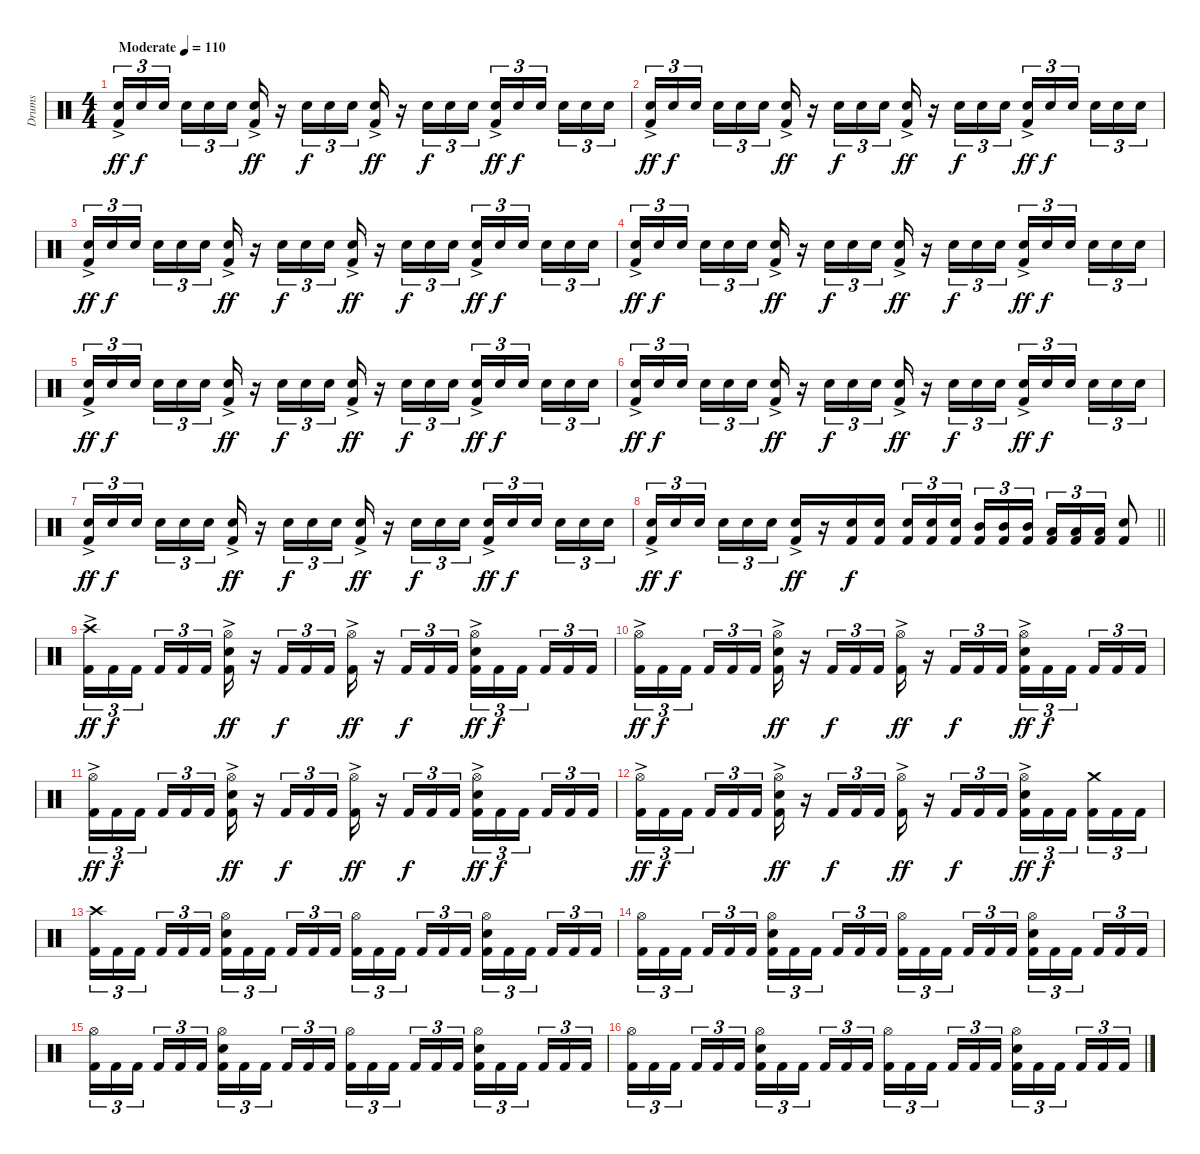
\track ("Drums" "Drums") {instrument percussion}
\staff {score}
\articulation defaults
\ts (4 4)
\tempo (110 "Moderate")
\clef neutral
\ks c
("Snare (hit) 2" "Kick (hit) 2"{ac}).16{tu (3 2) dy ff} "Snare (hit) 2".16{tu (3 2) dy f} "Snare (hit) 2".16{tu (3 2) beam splitsecondary} "Snare (hit) 2".16{tu (3 2)} "Snare (hit) 2".16{tu (3 2)} "Snare (hit) 2".16{tu (3 2)} ("Snare (hit) 2" "Kick (hit) 2"{ac}).16{dy ff} r.16 "Snare (hit) 2".16{tu (3 2) dy f} "Snare (hit) 2".16{tu (3 2)} "Snare (hit) 2".16{tu (3 2)} ("Snare (hit) 2" "Kick (hit) 2"{ac}).16{dy ff} r.16 "Snare (hit) 2".16{tu (3 2) dy f} "Snare (hit) 2".16{tu (3 2)} "Snare (hit) 2".16{tu (3 2)} ("Snare (hit) 2" "Kick (hit) 2"{ac}).16{tu (3 2) dy ff} "Snare (hit) 2".16{tu (3 2) dy f} "Snare (hit) 2".16{tu (3 2) beam splitsecondary} "Snare (hit) 2".16{tu (3 2)} "Snare (hit) 2".16{tu (3 2)} "Snare (hit) 2".16{tu (3 2)} |
("Snare (hit) 2" "Kick (hit) 2"{ac}).16{tu (3 2) dy ff} "Snare (hit) 2".16{tu (3 2) dy f} "Snare (hit) 2".16{tu (3 2) beam splitsecondary} "Snare (hit) 2".16{tu (3 2)} "Snare (hit) 2".16{tu (3 2)} "Snare (hit) 2".16{tu (3 2)} ("Snare (hit) 2" "Kick (hit) 2"{ac}).16{dy ff} r.16 "Snare (hit) 2".16{tu (3 2) dy f} "Snare (hit) 2".16{tu (3 2)} "Snare (hit) 2".16{tu (3 2)} ("Snare (hit) 2" "Kick (hit) 2"{ac}).16{dy ff} r.16 "Snare (hit) 2".16{tu (3 2) dy f} "Snare (hit) 2".16{tu (3 2)} "Snare (hit) 2".16{tu (3 2)} ("Snare (hit) 2" "Kick (hit) 2"{ac}).16{tu (3 2) dy ff} "Snare (hit) 2".16{tu (3 2) dy f} "Snare (hit) 2".16{tu (3 2) beam splitsecondary} "Snare (hit) 2".16{tu (3 2)} "Snare (hit) 2".16{tu (3 2)} "Snare (hit) 2".16{tu (3 2)} |
("Snare (hit) 2" "Kick (hit) 2"{ac}).16{tu (3 2) dy ff} "Snare (hit) 2".16{tu (3 2) dy f} "Snare (hit) 2".16{tu (3 2) beam splitsecondary} "Snare (hit) 2".16{tu (3 2)} "Snare (hit) 2".16{tu (3 2)} "Snare (hit) 2".16{tu (3 2)} ("Snare (hit) 2" "Kick (hit) 2"{ac}).16{dy ff} r.16 "Snare (hit) 2".16{tu (3 2) dy f} "Snare (hit) 2".16{tu (3 2)} "Snare (hit) 2".16{tu (3 2)} ("Snare (hit) 2" "Kick (hit) 2"{ac}).16{dy ff} r.16 "Snare (hit) 2".16{tu (3 2) dy f} "Snare (hit) 2".16{tu (3 2)} "Snare (hit) 2".16{tu (3 2)} ("Snare (hit) 2" "Kick (hit) 2"{ac}).16{tu (3 2) dy ff} "Snare (hit) 2".16{tu (3 2) dy f} "Snare (hit) 2".16{tu (3 2) beam splitsecondary} "Snare (hit) 2".16{tu (3 2)} "Snare (hit) 2".16{tu (3 2)} "Snare (hit) 2".16{tu (3 2)} |
("Snare (hit) 2" "Kick (hit) 2"{ac}).16{tu (3 2) dy ff} "Snare (hit) 2".16{tu (3 2) dy f} "Snare (hit) 2".16{tu (3 2) beam splitsecondary} "Snare (hit) 2".16{tu (3 2)} "Snare (hit) 2".16{tu (3 2)} "Snare (hit) 2".16{tu (3 2)} ("Snare (hit) 2" "Kick (hit) 2"{ac}).16{dy ff} r.16 "Snare (hit) 2".16{tu (3 2) dy f} "Snare (hit) 2".16{tu (3 2)} "Snare (hit) 2".16{tu (3 2)} ("Snare (hit) 2" "Kick (hit) 2"{ac}).16{dy ff} r.16 "Snare (hit) 2".16{tu (3 2) dy f} "Snare (hit) 2".16{tu (3 2)} "Snare (hit) 2".16{tu (3 2)} ("Snare (hit) 2" "Kick (hit) 2"{ac}).16{tu (3 2) dy ff} "Snare (hit) 2".16{tu (3 2) dy f} "Snare (hit) 2".16{tu (3 2) beam splitsecondary} "Snare (hit) 2".16{tu (3 2)} "Snare (hit) 2".16{tu (3 2)} "Snare (hit) 2".16{tu (3 2)} |
("Snare (hit) 2" "Kick (hit) 2"{ac}).16{tu (3 2) dy ff} "Snare (hit) 2".16{tu (3 2) dy f} "Snare (hit) 2".16{tu (3 2) beam splitsecondary} "Snare (hit) 2".16{tu (3 2)} "Snare (hit) 2".16{tu (3 2)} "Snare (hit) 2".16{tu (3 2)} ("Snare (hit) 2" "Kick (hit) 2"{ac}).16{dy ff} r.16 "Snare (hit) 2".16{tu (3 2) dy f} "Snare (hit) 2".16{tu (3 2)} "Snare (hit) 2".16{tu (3 2)} ("Snare (hit) 2" "Kick (hit) 2"{ac}).16{dy ff} r.16 "Snare (hit) 2".16{tu (3 2) dy f} "Snare (hit) 2".16{tu (3 2)} "Snare (hit) 2".16{tu (3 2)} ("Snare (hit) 2" "Kick (hit) 2"{ac}).16{tu (3 2) dy ff} "Snare (hit) 2".16{tu (3 2) dy f} "Snare (hit) 2".16{tu (3 2) beam splitsecondary} "Snare (hit) 2".16{tu (3 2)} "Snare (hit) 2".16{tu (3 2)} "Snare (hit) 2".16{tu (3 2)} |
("Snare (hit) 2" "Kick (hit) 2"{ac}).16{tu (3 2) dy ff} "Snare (hit) 2".16{tu (3 2) dy f} "Snare (hit) 2".16{tu (3 2) beam splitsecondary} "Snare (hit) 2".16{tu (3 2)} "Snare (hit) 2".16{tu (3 2)} "Snare (hit) 2".16{tu (3 2)} ("Snare (hit) 2" "Kick (hit) 2"{ac}).16{dy ff} r.16 "Snare (hit) 2".16{tu (3 2) dy f} "Snare (hit) 2".16{tu (3 2)} "Snare (hit) 2".16{tu (3 2)} ("Snare (hit) 2" "Kick (hit) 2"{ac}).16{dy ff} r.16 "Snare (hit) 2".16{tu (3 2) dy f} "Snare (hit) 2".16{tu (3 2)} "Snare (hit) 2".16{tu (3 2)} ("Snare (hit) 2" "Kick (hit) 2"{ac}).16{tu (3 2) dy ff} "Snare (hit) 2".16{tu (3 2) dy f} "Snare (hit) 2".16{tu (3 2) beam splitsecondary} "Snare (hit) 2".16{tu (3 2)} "Snare (hit) 2".16{tu (3 2)} "Snare (hit) 2".16{tu (3 2)} |
("Snare (hit) 2" "Kick (hit) 2"{ac}).16{tu (3 2) dy ff} "Snare (hit) 2".16{tu (3 2) dy f} "Snare (hit) 2".16{tu (3 2) beam splitsecondary} "Snare (hit) 2".16{tu (3 2)} "Snare (hit) 2".16{tu (3 2)} "Snare (hit) 2".16{tu (3 2)} ("Snare (hit) 2" "Kick (hit) 2"{ac}).16{dy ff} r.16 "Snare (hit) 2".16{tu (3 2) dy f} "Snare (hit) 2".16{tu (3 2)} "Snare (hit) 2".16{tu (3 2)} ("Snare (hit) 2" "Kick (hit) 2"{ac}).16{dy ff} r.16 "Snare (hit) 2".16{tu (3 2) dy f} "Snare (hit) 2".16{tu (3 2)} "Snare (hit) 2".16{tu (3 2)} ("Snare (hit) 2" "Kick (hit) 2"{ac}).16{tu (3 2) dy ff} "Snare (hit) 2".16{tu (3 2) dy f} "Snare (hit) 2".16{tu (3 2) beam splitsecondary} "Snare (hit) 2".16{tu (3 2)} "Snare (hit) 2".16{tu (3 2)} "Snare (hit) 2".16{tu (3 2)} |
\barLineRight lightlight
("Snare (hit) 2" "Kick (hit) 2"{ac}).16{tu (3 2) dy ff} "Snare (hit) 2".16{tu (3 2) dy f} "Snare (hit) 2".16{tu (3 2) beam splitsecondary} "Snare (hit) 2".16{tu (3 2)} "Snare (hit) 2".16{tu (3 2)} "Snare (hit) 2".16{tu (3 2)} ("Snare (hit) 2" "Kick (hit) 2"{ac}).16{dy ff} r.16 ("Snare (hit) 2" "Kick (hit) 2").16{dy f} ("Snare (hit) 2" "Kick (hit) 2").16 ("Snare (hit) 2" "Kick (hit) 2").16{tu (3 2)} ("Snare (hit) 2" "Kick (hit) 2").16{tu (3 2)} ("Snare (hit) 2" "Kick (hit) 2").16{tu (3 2) beam splitsecondary} ("Mid Tom (hit)" "Kick (hit) 2").16{tu (3 2)} ("Mid Tom (hit)" "Kick (hit) 2").16{tu (3 2)} ("Mid Tom (hit)" "Kick (hit) 2").16{tu (3 2)} ("Low Tom (hit)" "Kick (hit) 2").16{tu (3 2)} ("Low Tom (hit)" "Kick (hit) 2").16{tu (3 2)} ("Low Tom (hit)" "Kick (hit) 2").16{tu (3 2)} ("Snare (hit) 2" "Kick (hit) 2").8 |
("Crash high (hit)" "Kick (hit) 2"{ac}).16{tu (3 2) dy ff} "Kick (hit) 2".16{tu (3 2) dy f} "Kick (hit) 2".16{tu (3 2) beam splitsecondary} "Kick (hit) 2".16{tu (3 2)} "Kick (hit) 2".16{tu (3 2)} "Kick (hit) 2".16{tu (3 2)} ("Hi-Hat (open)" "Snare (hit) 2" "Kick (hit) 2"{ac}).16{dy ff} r.16 "Kick (hit) 2".16{tu (3 2) dy f} "Kick (hit) 2".16{tu (3 2)} "Kick (hit) 2".16{tu (3 2)} ("Hi-Hat (open)" "Kick (hit) 2"{ac}).16{dy ff} r.16 "Kick (hit) 2".16{tu (3 2) dy f} "Kick (hit) 2".16{tu (3 2)} "Kick (hit) 2".16{tu (3 2)} ("Hi-Hat (open)" "Snare (hit) 2" "Kick (hit) 2"{ac}).16{tu (3 2) dy ff} "Kick (hit) 2".16{tu (3 2) dy f} "Kick (hit) 2".16{tu (3 2) beam splitsecondary} "Kick (hit) 2".16{tu (3 2)} "Kick (hit) 2".16{tu (3 2)} "Kick (hit) 2".16{tu (3 2)} |
("Hi-Hat (open)" "Kick (hit) 2"{ac}).16{tu (3 2) dy ff} "Kick (hit) 2".16{tu (3 2) dy f} "Kick (hit) 2".16{tu (3 2) beam splitsecondary} "Kick (hit) 2".16{tu (3 2)} "Kick (hit) 2".16{tu (3 2)} "Kick (hit) 2".16{tu (3 2)} ("Hi-Hat (open)" "Snare (hit) 2" "Kick (hit) 2"{ac}).16{dy ff} r.16 "Kick (hit) 2".16{tu (3 2) dy f} "Kick (hit) 2".16{tu (3 2)} "Kick (hit) 2".16{tu (3 2)} ("Hi-Hat (open)" "Kick (hit) 2"{ac}).16{dy ff} r.16 "Kick (hit) 2".16{tu (3 2) dy f} "Kick (hit) 2".16{tu (3 2)} "Kick (hit) 2".16{tu (3 2)} ("Hi-Hat (open)" "Snare (hit) 2" "Kick (hit) 2"{ac}).16{tu (3 2) dy ff} "Kick (hit) 2".16{tu (3 2) dy f} "Kick (hit) 2".16{tu (3 2) beam splitsecondary} "Kick (hit) 2".16{tu (3 2)} "Kick (hit) 2".16{tu (3 2)} "Kick (hit) 2".16{tu (3 2)} |
("Hi-Hat (open)" "Kick (hit) 2"{ac}).16{tu (3 2) dy ff} "Kick (hit) 2".16{tu (3 2) dy f} "Kick (hit) 2".16{tu (3 2) beam splitsecondary} "Kick (hit) 2".16{tu (3 2)} "Kick (hit) 2".16{tu (3 2)} "Kick (hit) 2".16{tu (3 2)} ("Hi-Hat (open)" "Snare (hit) 2" "Kick (hit) 2"{ac}).16{dy ff} r.16 "Kick (hit) 2".16{tu (3 2) dy f} "Kick (hit) 2".16{tu (3 2)} "Kick (hit) 2".16{tu (3 2)} ("Hi-Hat (open)" "Kick (hit) 2"{ac}).16{dy ff} r.16 "Kick (hit) 2".16{tu (3 2) dy f} "Kick (hit) 2".16{tu (3 2)} "Kick (hit) 2".16{tu (3 2)} ("Hi-Hat (open)" "Snare (hit) 2" "Kick (hit) 2"{ac}).16{tu (3 2) dy ff} "Kick (hit) 2".16{tu (3 2) dy f} "Kick (hit) 2".16{tu (3 2) beam splitsecondary} "Kick (hit) 2".16{tu (3 2)} "Kick (hit) 2".16{tu (3 2)} "Kick (hit) 2".16{tu (3 2)} |
("Hi-Hat (open)" "Kick (hit) 2"{ac}).16{tu (3 2) dy ff} "Kick (hit) 2".16{tu (3 2) dy f} "Kick (hit) 2".16{tu (3 2) beam splitsecondary} "Kick (hit) 2".16{tu (3 2)} "Kick (hit) 2".16{tu (3 2)} "Kick (hit) 2".16{tu (3 2)} ("Hi-Hat (open)" "Snare (hit) 2" "Kick (hit) 2"{ac}).16{dy ff} r.16 "Kick (hit) 2".16{tu (3 2) dy f} "Kick (hit) 2".16{tu (3 2)} "Kick (hit) 2".16{tu (3 2)} ("Hi-Hat (open)" "Kick (hit) 2"{ac}).16{dy ff} r.16 "Kick (hit) 2".16{tu (3 2) dy f} "Kick (hit) 2".16{tu (3 2)} "Kick (hit) 2".16{tu (3 2)} ("Hi-Hat (open)" "Snare (hit) 2" "Kick (hit) 2"{ac}).16{tu (3 2) dy ff} "Kick (hit) 2".16{tu (3 2) dy f} "Kick (hit) 2".16{tu (3 2) beam splitsecondary} ("Crash medium (hit)" "Kick (hit) 2").16{tu (3 2)} "Kick (hit) 2".16{tu (3 2)} "Kick (hit) 2".16{tu (3 2)} |
("Crash high (hit)" "Kick (hit) 2").16{tu (3 2)} "Kick (hit) 2".16{tu (3 2)} "Kick (hit) 2".16{tu (3 2) beam splitsecondary} "Kick (hit) 2".16{tu (3 2)} "Kick (hit) 2".16{tu (3 2)} "Kick (hit) 2".16{tu (3 2)} ("Hi-Hat (open)" "Snare (hit) 2" "Kick (hit) 2").16{tu (3 2)} "Kick (hit) 2".16{tu (3 2)} "Kick (hit) 2".16{tu (3 2) beam splitsecondary} "Kick (hit) 2".16{tu (3 2)} "Kick (hit) 2".16{tu (3 2)} "Kick (hit) 2".16{tu (3 2)} ("Hi-Hat (open)" "Kick (hit) 2").16{tu (3 2)} "Kick (hit) 2".16{tu (3 2)} "Kick (hit) 2".16{tu (3 2) beam splitsecondary} "Kick (hit) 2".16{tu (3 2)} "Kick (hit) 2".16{tu (3 2)} "Kick (hit) 2".16{tu (3 2)} ("Hi-Hat (open)" "Snare (hit) 2" "Kick (hit) 2").16{tu (3 2)} "Kick (hit) 2".16{tu (3 2)} "Kick (hit) 2".16{tu (3 2) beam splitsecondary} "Kick (hit) 2".16{tu (3 2)} "Kick (hit) 2".16{tu (3 2)} "Kick (hit) 2".16{tu (3 2)} |
("Hi-Hat (open)" "Kick (hit) 2").16{tu (3 2)} "Kick (hit) 2".16{tu (3 2)} "Kick (hit) 2".16{tu (3 2) beam splitsecondary} "Kick (hit) 2".16{tu (3 2)} "Kick (hit) 2".16{tu (3 2)} "Kick (hit) 2".16{tu (3 2)} ("Hi-Hat (open)" "Snare (hit) 2" "Kick (hit) 2").16{tu (3 2)} "Kick (hit) 2".16{tu (3 2)} "Kick (hit) 2".16{tu (3 2) beam splitsecondary} "Kick (hit) 2".16{tu (3 2)} "Kick (hit) 2".16{tu (3 2)} "Kick (hit) 2".16{tu (3 2)} ("Hi-Hat (open)" "Kick (hit) 2").16{tu (3 2)} "Kick (hit) 2".16{tu (3 2)} "Kick (hit) 2".16{tu (3 2) beam splitsecondary} "Kick (hit) 2".16{tu (3 2)} "Kick (hit) 2".16{tu (3 2)} "Kick (hit) 2".16{tu (3 2)} ("Hi-Hat (open)" "Snare (hit) 2" "Kick (hit) 2").16{tu (3 2)} "Kick (hit) 2".16{tu (3 2)} "Kick (hit) 2".16{tu (3 2) beam splitsecondary} "Kick (hit) 2".16{tu (3 2)} "Kick (hit) 2".16{tu (3 2)} "Kick (hit) 2".16{tu (3 2)} |
("Hi-Hat (open)" "Kick (hit) 2").16{tu (3 2)} "Kick (hit) 2".16{tu (3 2)} "Kick (hit) 2".16{tu (3 2) beam splitsecondary} "Kick (hit) 2".16{tu (3 2)} "Kick (hit) 2".16{tu (3 2)} "Kick (hit) 2".16{tu (3 2)} ("Hi-Hat (open)" "Snare (hit) 2" "Kick (hit) 2").16{tu (3 2)} "Kick (hit) 2".16{tu (3 2)} "Kick (hit) 2".16{tu (3 2) beam splitsecondary} "Kick (hit) 2".16{tu (3 2)} "Kick (hit) 2".16{tu (3 2)} "Kick (hit) 2".16{tu (3 2)} ("Hi-Hat (open)" "Kick (hit) 2").16{tu (3 2)} "Kick (hit) 2".16{tu (3 2)} "Kick (hit) 2".16{tu (3 2) beam splitsecondary} "Kick (hit) 2".16{tu (3 2)} "Kick (hit) 2".16{tu (3 2)} "Kick (hit) 2".16{tu (3 2)} ("Hi-Hat (open)" "Snare (hit) 2" "Kick (hit) 2").16{tu (3 2)} "Kick (hit) 2".16{tu (3 2)} "Kick (hit) 2".16{tu (3 2) beam splitsecondary} "Kick (hit) 2".16{tu (3 2)} "Kick (hit) 2".16{tu (3 2)} "Kick (hit) 2".16{tu (3 2)} |
("Hi-Hat (open)" "Kick (hit) 2").16{tu (3 2)} "Kick (hit) 2".16{tu (3 2)} "Kick (hit) 2".16{tu (3 2) beam splitsecondary} "Kick (hit) 2".16{tu (3 2)} "Kick (hit) 2".16{tu (3 2)} "Kick (hit) 2".16{tu (3 2)} ("Hi-Hat (open)" "Snare (hit) 2" "Kick (hit) 2").16{tu (3 2)} "Kick (hit) 2".16{tu (3 2)} "Kick (hit) 2".16{tu (3 2) beam splitsecondary} "Kick (hit) 2".16{tu (3 2)} "Kick (hit) 2".16{tu (3 2)} "Kick (hit) 2".16{tu (3 2)} ("Hi-Hat (open)" "Kick (hit) 2").16{tu (3 2)} "Kick (hit) 2".16{tu (3 2)} "Kick (hit) 2".16{tu (3 2) beam splitsecondary} "Kick (hit) 2".16{tu (3 2)} "Kick (hit) 2".16{tu (3 2)} "Kick (hit) 2".16{tu (3 2)} ("Hi-Hat (open)" "Snare (hit) 2" "Kick (hit) 2").16{tu (3 2)} "Kick (hit) 2".16{tu (3 2)} "Kick (hit) 2".16{tu (3 2) beam splitsecondary} "Kick (hit) 2".16{tu (3 2)} "Kick (hit) 2".16{tu (3 2)} "Kick (hit) 2".16{tu (3 2)}
